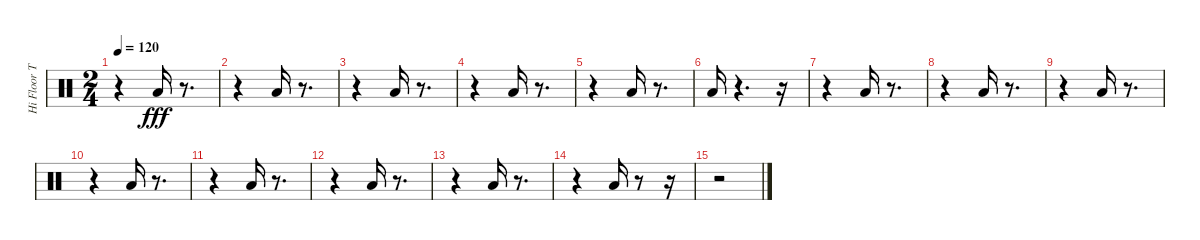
\track ("Hi Floor Tom (1) (1) (1) (1)" "Hi Floor T") {instrument percussion}
\staff {score}
\articulation defaults
\ts (2 4)
\tempo 120
\clef neutral
\ks c
r.4{dy fff} "Low Floor Tom (hit)".16 r.8{d} |
r.4 "Low Floor Tom (hit)".16 r.8{d} |
r.4 "Low Floor Tom (hit)".16 r.8{d} |
r.4 "Low Floor Tom (hit)".16 r.8{d} |
r.4 "Low Floor Tom (hit)".16 r.8{d} |
"Low Floor Tom (hit)".16 r.4{d} r.16 |
r.4 "Low Floor Tom (hit)".16 r.8{d} |
r.4 "Low Floor Tom (hit)".16 r.8{d} |
r.4 "Low Floor Tom (hit)".16 r.8{d} |
r.4 "Low Floor Tom (hit)".16 r.8{d} |
r.4 "Low Floor Tom (hit)".16 r.8{d} |
r.4 "Low Floor Tom (hit)".16 r.8{d} |
r.4 "Low Floor Tom (hit)".16 r.8{d} |
r.4 "Low Floor Tom (hit)".16 r.8 r.16 |
r.2
